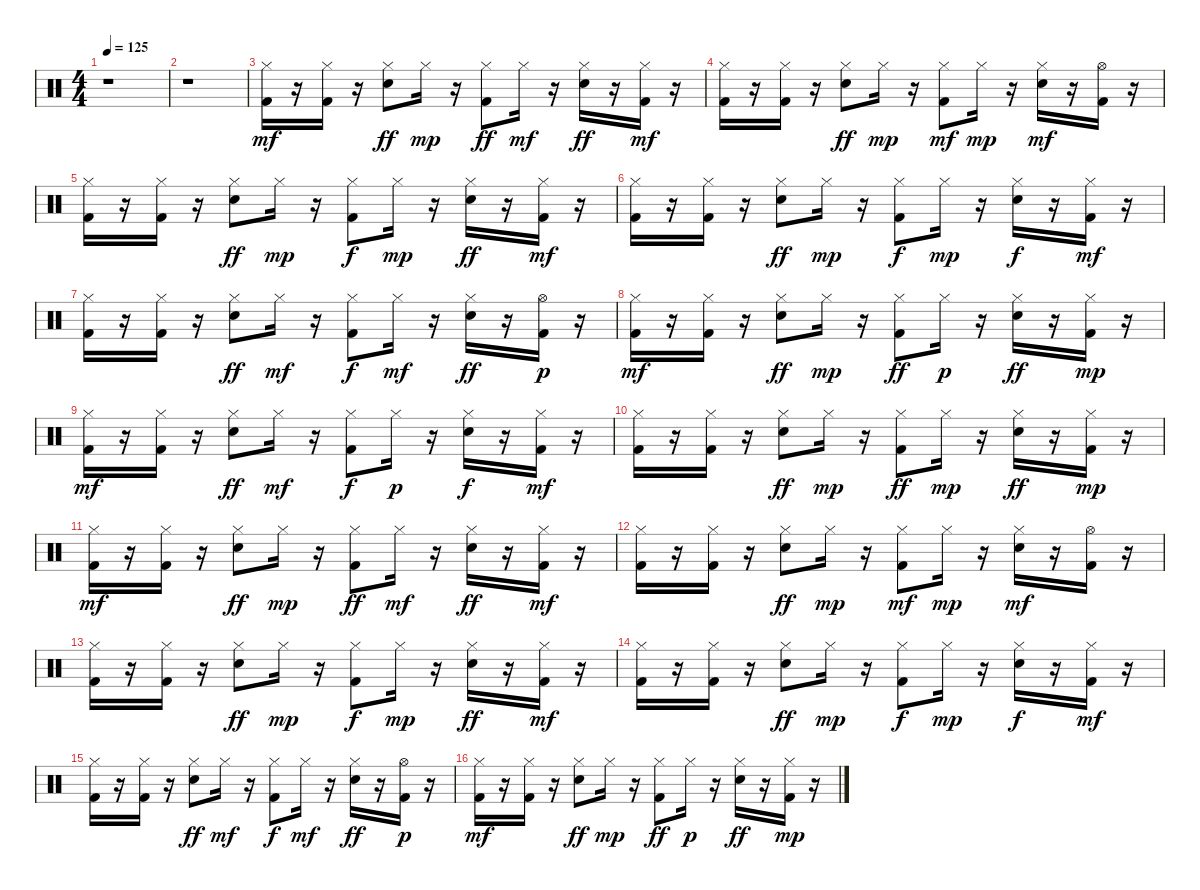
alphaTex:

\track "" {instrument percussion}
\staff {score}
\articulation defaults
\ts (4 4)
\tempo 125
\clef neutral
\ks c
r.1{dy mf} |
r.1 |
("Hi-Hat (closed)" "Kick (hit) 2").16 r.16 ("Hi-Hat (closed)" "Kick (hit) 2").16 r.16 ("Hi-Hat (closed)" "Snare (hit) 2").8{dy ff} "Hi-Hat (closed)".16{dy mp} r.16 ("Hi-Hat (closed)" "Kick (hit) 2").8{dy ff} "Hi-Hat (closed)".16{dy mf} r.16 ("Snare (hit) 2" "Hi-Hat (closed)").16{dy ff} r.16 ("Kick (hit) 2" "Hi-Hat (closed)").16{dy mf} r.16 |
("Hi-Hat (closed)" "Kick (hit) 2").16 r.16 ("Kick (hit) 2" "Hi-Hat (closed)").16 r.16 ("Hi-Hat (closed)" "Snare (hit) 2").8{dy ff} "Hi-Hat (closed)".16{dy mp} r.16 ("Kick (hit) 2" "Hi-Hat (closed)").8{dy mf} "Hi-Hat (closed)".16{dy mp} r.16 ("Snare (hit) 2" "Hi-Hat (closed)").16{dy mf} r.16 ("Hi-Hat (open)" "Kick (hit) 2").16 r.16 |
("Hi-Hat (closed)" "Kick (hit) 2").16 r.16 ("Hi-Hat (closed)" "Kick (hit) 2").16 r.16 ("Snare (hit) 2" "Hi-Hat (closed)").8{dy ff} "Hi-Hat (closed)".16{dy mp} r.16 ("Hi-Hat (closed)" "Kick (hit) 2").8{dy f} "Hi-Hat (closed)".16{dy mp} r.16 ("Hi-Hat (closed)" "Snare (hit) 2").16{dy ff} r.16 ("Hi-Hat (closed)" "Kick (hit) 2").16{dy mf} r.16 |
("Hi-Hat (closed)" "Kick (hit) 2").16 r.16 ("Hi-Hat (closed)" "Kick (hit) 2").16 r.16 ("Hi-Hat (closed)" "Snare (hit) 2").8{dy ff} "Hi-Hat (closed)".16{dy mp} r.16 ("Hi-Hat (closed)" "Kick (hit) 2").8{dy f} "Hi-Hat (closed)".16{dy mp} r.16 ("Snare (hit) 2" "Hi-Hat (closed)").16{dy f} r.16 ("Kick (hit) 2" "Hi-Hat (closed)").16{dy mf} r.16 |
("Hi-Hat (closed)" "Kick (hit) 2").16 r.16 ("Kick (hit) 2" "Hi-Hat (closed)").16 r.16 ("Snare (hit) 2" "Hi-Hat (closed)").8{dy ff} "Hi-Hat (closed)".16{dy mf} r.16 ("Kick (hit) 2" "Hi-Hat (closed)").8{dy f} "Hi-Hat (closed)".16{dy mf} r.16 ("Hi-Hat (closed)" "Snare (hit) 2").16{dy ff} r.16 ("Kick (hit) 2" "Hi-Hat (open)").16{dy p} r.16 |
("Hi-Hat (closed)" "Kick (hit) 2").16{dy mf} r.16 ("Kick (hit) 2" "Hi-Hat (closed)").16 r.16 ("Hi-Hat (closed)" "Snare (hit) 2").8{dy ff} "Hi-Hat (closed)".16{dy mp} r.16 ("Kick (hit) 2" "Hi-Hat (closed)").8{dy ff} "Hi-Hat (closed)".16{dy p} r.16 ("Hi-Hat (closed)" "Snare (hit) 2").16{dy ff} r.16 ("Hi-Hat (closed)" "Kick (hit) 2").16{dy mp} r.16 |
("Hi-Hat (closed)" "Kick (hit) 2").16{dy mf} r.16 ("Hi-Hat (closed)" "Kick (hit) 2").16 r.16 ("Snare (hit) 2" "Hi-Hat (closed)").8{dy ff} "Hi-Hat (closed)".16{dy mf} r.16 ("Kick (hit) 2" "Hi-Hat (closed)").8{dy f} "Hi-Hat (closed)".16{dy p} r.16 ("Snare (hit) 2" "Hi-Hat (closed)").16{dy f} r.16 ("Hi-Hat (closed)" "Kick (hit) 2").16{dy mf} r.16 |
("Hi-Hat (closed)" "Kick (hit) 2").16 r.16 ("Hi-Hat (closed)" "Kick (hit) 2").16 r.16 ("Snare (hit) 2" "Hi-Hat (closed)").8{dy ff} "Hi-Hat (closed)".16{dy mp} r.16 ("Kick (hit) 2" "Hi-Hat (closed)").8{dy ff} "Hi-Hat (closed)".16{dy mp} r.16 ("Snare (hit) 2" "Hi-Hat (closed)").16{dy ff} r.16 ("Hi-Hat (closed)" "Kick (hit) 2").16{dy mp} r.16 |
("Hi-Hat (closed)" "Kick (hit) 2").16{dy mf} r.16 ("Hi-Hat (closed)" "Kick (hit) 2").16 r.16 ("Hi-Hat (closed)" "Snare (hit) 2").8{dy ff} "Hi-Hat (closed)".16{dy mp} r.16 ("Hi-Hat (closed)" "Kick (hit) 2").8{dy ff} "Hi-Hat (closed)".16{dy mf} r.16 ("Snare (hit) 2" "Hi-Hat (closed)").16{dy ff} r.16 ("Kick (hit) 2" "Hi-Hat (closed)").16{dy mf} r.16 |
("Hi-Hat (closed)" "Kick (hit) 2").16 r.16 ("Kick (hit) 2" "Hi-Hat (closed)").16 r.16 ("Hi-Hat (closed)" "Snare (hit) 2").8{dy ff} "Hi-Hat (closed)".16{dy mp} r.16 ("Kick (hit) 2" "Hi-Hat (closed)").8{dy mf} "Hi-Hat (closed)".16{dy mp} r.16 ("Snare (hit) 2" "Hi-Hat (closed)").16{dy mf} r.16 ("Hi-Hat (open)" "Kick (hit) 2").16 r.16 |
("Hi-Hat (closed)" "Kick (hit) 2").16 r.16 ("Hi-Hat (closed)" "Kick (hit) 2").16 r.16 ("Snare (hit) 2" "Hi-Hat (closed)").8{dy ff} "Hi-Hat (closed)".16{dy mp} r.16 ("Hi-Hat (closed)" "Kick (hit) 2").8{dy f} "Hi-Hat (closed)".16{dy mp} r.16 ("Hi-Hat (closed)" "Snare (hit) 2").16{dy ff} r.16 ("Hi-Hat (closed)" "Kick (hit) 2").16{dy mf} r.16 |
("Hi-Hat (closed)" "Kick (hit) 2").16 r.16 ("Hi-Hat (closed)" "Kick (hit) 2").16 r.16 ("Hi-Hat (closed)" "Snare (hit) 2").8{dy ff} "Hi-Hat (closed)".16{dy mp} r.16 ("Hi-Hat (closed)" "Kick (hit) 2").8{dy f} "Hi-Hat (closed)".16{dy mp} r.16 ("Snare (hit) 2" "Hi-Hat (closed)").16{dy f} r.16 ("Kick (hit) 2" "Hi-Hat (closed)").16{dy mf} r.16 |
("Hi-Hat (closed)" "Kick (hit) 2").16 r.16 ("Kick (hit) 2" "Hi-Hat (closed)").16 r.16 ("Snare (hit) 2" "Hi-Hat (closed)").8{dy ff} "Hi-Hat (closed)".16{dy mf} r.16 ("Kick (hit) 2" "Hi-Hat (closed)").8{dy f} "Hi-Hat (closed)".16{dy mf} r.16 ("Hi-Hat (closed)" "Snare (hit) 2").16{dy ff} r.16 ("Kick (hit) 2" "Hi-Hat (open)").16{dy p} r.16 |
("Hi-Hat (closed)" "Kick (hit) 2").16{dy mf} r.16 ("Kick (hit) 2" "Hi-Hat (closed)").16 r.16 ("Hi-Hat (closed)" "Snare (hit) 2").8{dy ff} "Hi-Hat (closed)".16{dy mp} r.16 ("Kick (hit) 2" "Hi-Hat (closed)").8{dy ff} "Hi-Hat (closed)".16{dy p} r.16 ("Hi-Hat (closed)" "Snare (hit) 2").16{dy ff} r.16 ("Hi-Hat (closed)" "Kick (hit) 2").16{dy mp} r.16
